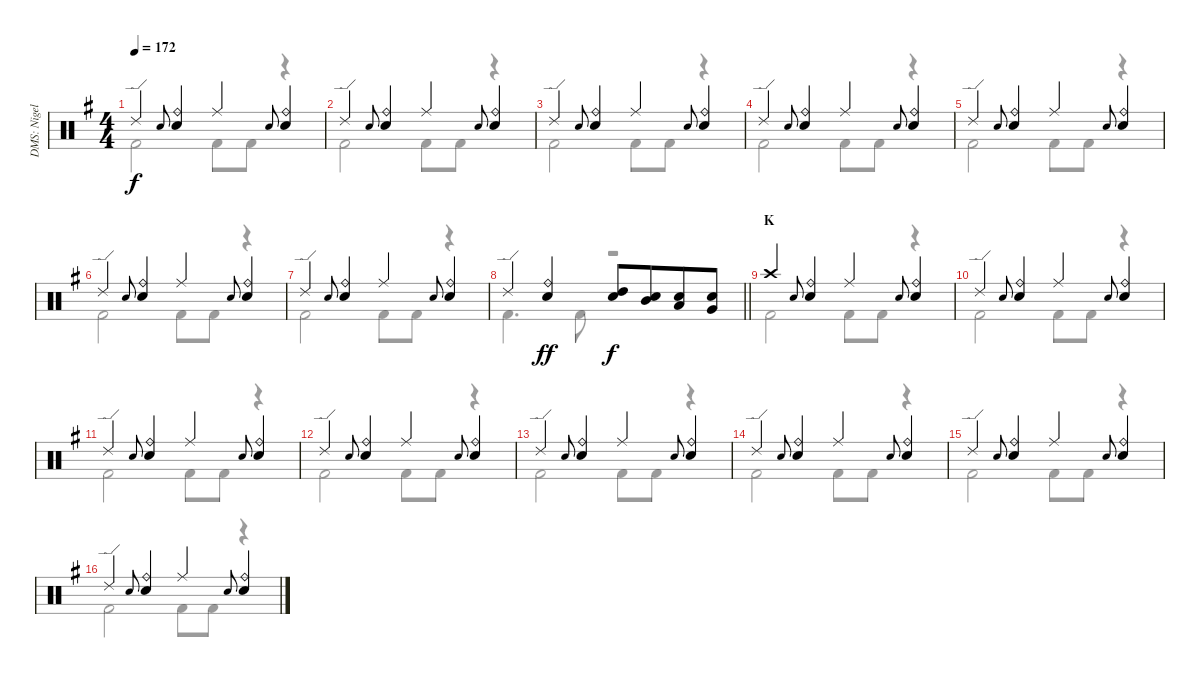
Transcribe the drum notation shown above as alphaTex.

\track ("DMS: Nigel Olsson" "DMS: Nigel") {instrument percussion}
\staff {score}
\articulation defaults
\voice
\ts (4 4)
\tempo 172
\clef neutral
\ks g "Ride (edge) 2".4{dy f} "Snare (hit) 2".8{gr onbeat}
("Ride (bell)" "Electric Snare (hit)").4 "Ride (middle)".4 "Snare (hit) 2".8{gr onbeat} ("Ride (bell)" "Electric Snare (hit)").4 |
"Ride (edge) 2".4 "Snare (hit) 2".8{gr onbeat} ("Ride (bell)" "Electric Snare (hit)").4 "Ride (middle)".4 "Snare (hit) 2".8{gr onbeat} ("Ride (bell)" "Electric Snare (hit)").4 |
"Ride (edge) 2".4 "Snare (hit) 2".8{gr onbeat} ("Ride (bell)" "Electric Snare (hit)").4 "Ride (middle)".4 "Snare (hit) 2".8{gr onbeat} ("Ride (bell)" "Electric Snare (hit)").4 |
"Ride (edge) 2".4 "Snare (hit) 2".8{gr onbeat} ("Ride (bell)" "Electric Snare (hit)").4 "Ride (middle)".4 "Snare (hit) 2".8{gr onbeat} ("Ride (bell)" "Electric Snare (hit)").4 |
"Ride (edge) 2".4 "Snare (hit) 2".8{gr onbeat} ("Ride (bell)" "Electric Snare (hit)").4 "Ride (middle)".4 "Snare (hit) 2".8{gr onbeat} ("Ride (bell)" "Electric Snare (hit)").4 |
"Ride (edge) 2".4 "Snare (hit) 2".8{gr onbeat} ("Ride (bell)" "Electric Snare (hit)").4 "Ride (middle)".4 "Snare (hit) 2".8{gr onbeat} ("Ride (bell)" "Electric Snare (hit)").4 |
"Ride (edge) 2".4 "Snare (hit) 2".8{gr onbeat} ("Ride (bell)" "Electric Snare (hit)").4 "Ride (middle)".4 "Snare (hit) 2".8{gr onbeat} ("Ride (bell)" "Electric Snare (hit)").4 |
\barLineRight lightlight "Ride (edge) 2".4
("Ride (bell)" "Electric Snare (hit)").4{dy ff} ("Electric Snare (hit)" "High Tom (hit)").8{dy f} ("Electric Snare (hit)" "Mid Tom (hit)").8{beam merge} ("Electric Snare (hit)" "Low Tom (hit)").8 ("Electric Snare (hit)" "Very Low Tom (hit)").8 |
\section ("" "K")
"Crash high (hit)".4 "Snare (hit) 2".8{gr onbeat} ("Ride (bell)" "Electric Snare (hit)").4 "Ride (middle)".4 "Snare (hit) 2".8{gr onbeat} ("Ride (bell)" "Electric Snare (hit)").4 |
"Ride (edge) 2".4 "Snare (hit) 2".8{gr onbeat} ("Ride (bell)" "Electric Snare (hit)").4 "Ride (middle)".4 "Snare (hit) 2".8{gr onbeat} ("Ride (bell)" "Electric Snare (hit)").4 |
"Ride (edge) 2".4 "Snare (hit) 2".8{gr onbeat} ("Ride (bell)" "Electric Snare (hit)").4 "Ride (middle)".4 "Snare (hit) 2".8{gr onbeat} ("Ride (bell)" "Electric Snare (hit)").4 |
"Ride (edge) 2".4 "Snare (hit) 2".8{gr onbeat} ("Ride (bell)" "Electric Snare (hit)").4 "Ride (middle)".4 "Snare (hit) 2".8{gr onbeat} ("Ride (bell)" "Electric Snare (hit)").4 |
"Ride (edge) 2".4 "Snare (hit) 2".8{gr onbeat} ("Ride (bell)" "Electric Snare (hit)").4 "Ride (middle)".4 "Snare (hit) 2".8{gr onbeat} ("Ride (bell)" "Electric Snare (hit)").4 |
"Ride (edge) 2".4 "Snare (hit) 2".8{gr onbeat} ("Ride (bell)" "Electric Snare (hit)").4 "Ride (middle)".4 "Snare (hit) 2".8{gr onbeat} ("Ride (bell)" "Electric Snare (hit)").4 |
"Ride (edge) 2".4 "Snare (hit) 2".8{gr onbeat} ("Ride (bell)" "Electric Snare (hit)").4 "Ride (middle)".4 "Snare (hit) 2".8{gr onbeat} ("Ride (bell)" "Electric Snare (hit)").4 |
"Ride (edge) 2".4 "Snare (hit) 2".8{gr onbeat} ("Ride (bell)" "Electric Snare (hit)").4 "Ride (middle)".4 "Snare (hit) 2".8{gr onbeat} ("Ride (bell)" "Electric Snare (hit)").4
\voice
\clef neutral
\ottava regular
\simile none
\ks g "Kick (hit) 2".2{dy f} "Kick (hit) 2".8 "Kick (hit) 2".8
r.4 |
"Kick (hit) 2".2 "Kick (hit) 2".8 "Kick (hit) 2".8 r.4 |
"Kick (hit) 2".2 "Kick (hit) 2".8 "Kick (hit) 2".8 r.4 |
"Kick (hit) 2".2 "Kick (hit) 2".8 "Kick (hit) 2".8 r.4 |
"Kick (hit) 2".2 "Kick (hit) 2".8 "Kick (hit) 2".8 r.4 |
"Kick (hit) 2".2 "Kick (hit) 2".8 "Kick (hit) 2".8 r.4 |
"Kick (hit) 2".2 "Kick (hit) 2".8 "Kick (hit) 2".8 r.4 |
\barLineRight lightlight "Kick (hit) 2".4{d} "Kick (hit) 2".8
r.2 |
"Kick (hit) 2".2 "Kick (hit) 2".8 "Kick (hit) 2".8 r.4 |
"Kick (hit) 2".2 "Kick (hit) 2".8 "Kick (hit) 2".8 r.4 |
"Kick (hit) 2".2 "Kick (hit) 2".8 "Kick (hit) 2".8 r.4 |
"Kick (hit) 2".2 "Kick (hit) 2".8 "Kick (hit) 2".8 r.4 |
"Kick (hit) 2".2 "Kick (hit) 2".8 "Kick (hit) 2".8 r.4 |
"Kick (hit) 2".2 "Kick (hit) 2".8 "Kick (hit) 2".8 r.4 |
"Kick (hit) 2".2 "Kick (hit) 2".8 "Kick (hit) 2".8 r.4 |
"Kick (hit) 2".2 "Kick (hit) 2".8 "Kick (hit) 2".8 r.4
